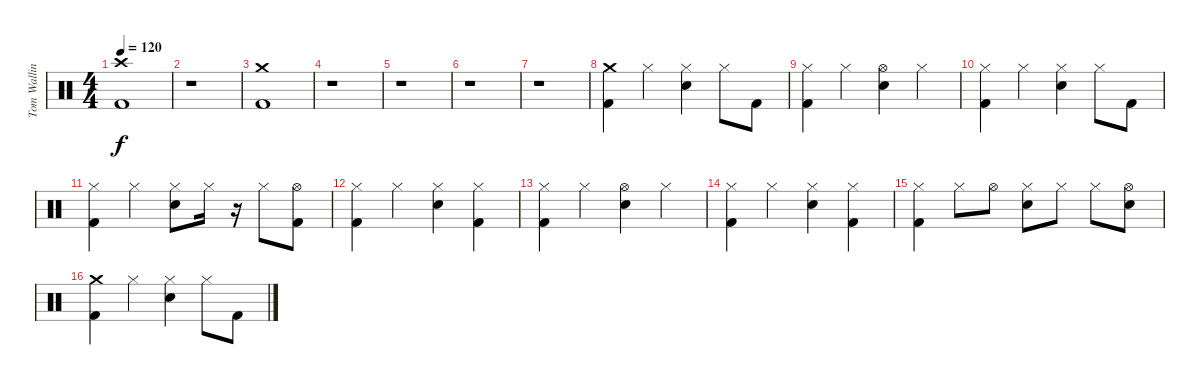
\track ("Tom Walling (Drums)" "Tom Wallin") {instrument percussion}
\staff {score}
\articulation defaults
\ts (4 4)
\tempo 120
\clef neutral
\ks c
("Crash high (hit)" "Kick (hit) 2").1{dy f} |
r.1 |
("Crash medium (hit)" "Kick (hit) 2").1 |
r.1 |
r.1 |
r.1 |
r.1 |
("Crash medium (hit)" "Kick (hit) 2").4{volume 16 balance 8} "Hi-Hat (closed)".4 ("Hi-Hat (closed)" "Electric Snare (hit)").4 "Hi-Hat (closed)".8 "Kick (hit) 2".8 |
("Hi-Hat (closed)" "Kick (hit) 2").4 "Hi-Hat (closed)".4 ("Hi-Hat (open)" "Electric Snare (hit)").4 "Hi-Hat (closed)".4 |
("Hi-Hat (closed)" "Kick (hit) 2").4 "Hi-Hat (closed)".4 ("Hi-Hat (closed)" "Electric Snare (hit)").4 "Hi-Hat (closed)".8 "Kick (hit) 2".8 |
("Hi-Hat (closed)" "Kick (hit) 2").4 "Hi-Hat (closed)".4 ("Hi-Hat (closed)" "Electric Snare (hit)").8 "Hi-Hat (closed)".16 r.16 "Hi-Hat (closed)".8 ("Hi-Hat (open)" "Kick (hit) 2").8 |
("Hi-Hat (closed)" "Kick (hit) 2").4 "Hi-Hat (closed)".4 ("Hi-Hat (closed)" "Electric Snare (hit)").4 ("Hi-Hat (closed)" "Kick (hit) 2").4 |
("Hi-Hat (closed)" "Kick (hit) 2").4 "Hi-Hat (closed)".4 ("Hi-Hat (open)" "Electric Snare (hit)").4 "Hi-Hat (closed)".4 |
("Hi-Hat (closed)" "Kick (hit) 2").4 "Hi-Hat (closed)".4 ("Hi-Hat (closed)" "Electric Snare (hit)").4 ("Hi-Hat (closed)" "Kick (hit) 2").4 |
("Hi-Hat (closed)" "Kick (hit) 2").4 "Hi-Hat (closed)".8 "Hi-Hat (open)".8 ("Hi-Hat (closed)" "Electric Snare (hit)").8 "Hi-Hat (closed)".8 "Hi-Hat (closed)".8 ("Hi-Hat (open)" "Electric Snare (hit)").8 |
("Crash medium (hit)" "Kick (hit) 2").4 "Hi-Hat (closed)".4 ("Hi-Hat (closed)" "Electric Snare (hit)").4 "Hi-Hat (closed)".8 "Kick (hit) 2".8
